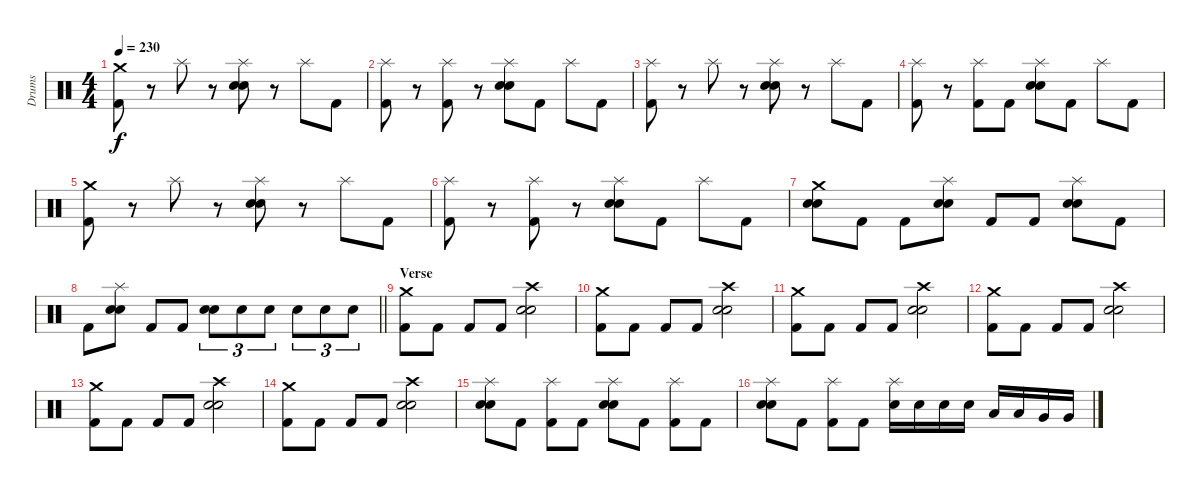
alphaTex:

\track ("Drums" "Drums") {instrument percussion}
\staff {score}
\articulation defaults
\ts (4 4)
\tempo 230
\clef neutral
\ks c
("Crash medium (hit)" "Kick (hit) 2").8{dy f} r.8 "Splash (hit)".8 r.8 ("Splash (hit)" "Electric Snare (hit)" "Snare (hit) 2").8 r.8 "Splash (hit)".8 "Kick (hit) 2".8 |
("Splash (hit)" "Kick (hit) 2").8 r.8 ("Splash (hit)" "Kick (hit) 2").8 r.8 ("Splash (hit)" "Electric Snare (hit)" "Snare (hit) 2").8 "Kick (hit) 2".8 "Splash (hit)".8 "Kick (hit) 2".8 |
("Splash (hit)" "Kick (hit) 2").8 r.8 "Splash (hit)".8 r.8 ("Splash (hit)" "Electric Snare (hit)" "Snare (hit) 2").8 r.8 "Splash (hit)".8 "Kick (hit) 2".8 |
("Splash (hit)" "Kick (hit) 2").8 r.8 ("Splash (hit)" "Kick (hit) 2").8 "Kick (hit) 2".8 ("Splash (hit)" "Electric Snare (hit)" "Snare (hit) 2").8 "Kick (hit) 2".8 "Splash (hit)".8 "Kick (hit) 2".8 |
("Crash medium (hit)" "Kick (hit) 2").8 r.8 "Splash (hit)".8 r.8 ("Splash (hit)" "Electric Snare (hit)" "Snare (hit) 2").8 r.8 "Splash (hit)".8 "Kick (hit) 2".8 |
("Splash (hit)" "Kick (hit) 2").8 r.8 ("Splash (hit)" "Kick (hit) 2").8 r.8 ("Splash (hit)" "Electric Snare (hit)" "Snare (hit) 2").8 "Kick (hit) 2".8 "Splash (hit)".8 "Kick (hit) 2".8 |
("Crash medium (hit)" "Electric Snare (hit)" "Snare (hit) 2").8 "Kick (hit) 2".8 "Kick (hit) 2".8 ("Splash (hit)" "Electric Snare (hit)" "Snare (hit) 2").8 "Kick (hit) 2".8 "Kick (hit) 2".8 ("Splash (hit)" "Electric Snare (hit)" "Snare (hit) 2").8 "Kick (hit) 2".8 |
\barLineRight lightlight "Kick (hit) 2".8
("Splash (hit)" "Electric Snare (hit)" "Snare (hit) 2").8 "Kick (hit) 2".8 "Kick (hit) 2".8 ("Electric Snare (hit)" "Snare (hit) 2").8{tu (3 2)} "Electric Snare (hit)".8{tu (3 2)} "Electric Snare (hit)".8{tu (3 2)} "Electric Snare (hit)".8{tu (3 2)} "Electric Snare (hit)".8{tu (3 2)} "Electric Snare (hit)".8{tu (3 2)} |
\section ("" "Verse")
("Crash medium (hit)" "Kick (hit) 2").8 "Kick (hit) 2".8 "Kick (hit) 2".8 "Kick (hit) 2".8 ("Crash high (hit)" "Electric Snare (hit)" "Snare (hit) 2").2 |
("Crash medium (hit)" "Kick (hit) 2").8 "Kick (hit) 2".8 "Kick (hit) 2".8 "Kick (hit) 2".8 ("Crash high (hit)" "Electric Snare (hit)" "Snare (hit) 2").2 |
("Crash medium (hit)" "Kick (hit) 2").8 "Kick (hit) 2".8 "Kick (hit) 2".8 "Kick (hit) 2".8 ("Crash high (hit)" "Electric Snare (hit)" "Snare (hit) 2").2 |
("Crash medium (hit)" "Kick (hit) 2").8 "Kick (hit) 2".8 "Kick (hit) 2".8 "Kick (hit) 2".8 ("Crash high (hit)" "Electric Snare (hit)" "Snare (hit) 2").2 |
("Crash medium (hit)" "Kick (hit) 2").8 "Kick (hit) 2".8 "Kick (hit) 2".8 "Kick (hit) 2".8 ("Crash high (hit)" "Electric Snare (hit)" "Snare (hit) 2").2 |
("Crash medium (hit)" "Kick (hit) 2").8 "Kick (hit) 2".8 "Kick (hit) 2".8 "Kick (hit) 2".8 ("Crash high (hit)" "Electric Snare (hit)" "Snare (hit) 2").2 |
("Splash (hit)" "Electric Snare (hit)" "Snare (hit) 2").8 "Kick (hit) 2".8 ("Splash (hit)" "Kick (hit) 2").8 "Kick (hit) 2".8 ("Splash (hit)" "Electric Snare (hit)" "Snare (hit) 2").8 "Kick (hit) 2".8 ("Splash (hit)" "Kick (hit) 2").8 "Kick (hit) 2".8 |
("Splash (hit)" "Electric Snare (hit)" "Snare (hit) 2").8 "Kick (hit) 2".8 ("Splash (hit)" "Kick (hit) 2").8 "Kick (hit) 2".8 ("Splash (hit)" "Electric Snare (hit)").16 "Electric Snare (hit)".16 "Electric Snare (hit)".16 "Electric Snare (hit)".16 "Low Tom (hit)".16 "Low Tom (hit)".16 "Very Low Tom (hit)".16 "Very Low Tom (hit)".16
